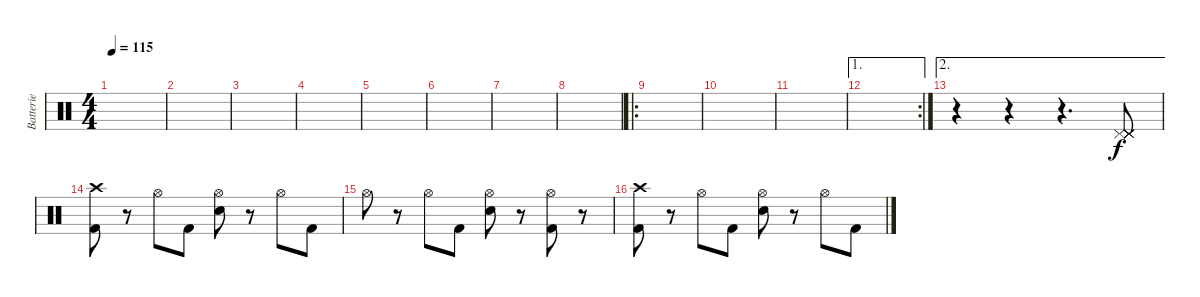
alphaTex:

\track ("Batterie" "Batterie") {instrument percussion}
\staff {score}
\articulation defaults
\ts (4 4)
\tempo 115
\clef neutral
\ks c
|
|
|
|
|
|
|
|
\ro
|
|
|
\ae 1
\rc 2
|
\ae 2
r.4 r.4 r.4{d} ("Pedal Hi-Hat (hit)" "Pedal Hi-Hat (hit)" "Pedal Hi-Hat (hit)" "Pedal Hi-Hat (hit)" "Pedal Hi-Hat (hit)" "Pedal Hi-Hat (hit)").8 |
("Crash high (hit)" "Kick (hit) 2").8 r.8 "Hi-Hat (open)".8 "Kick (hit) 2".8 ("Hi-Hat (open)" "Electric Snare (hit)").8 r.8 "Hi-Hat (open)".8 "Kick (hit) 2".8 |
"Hi-Hat (open)".8 r.8 "Hi-Hat (open)".8 "Kick (hit) 2".8 ("Hi-Hat (open)" "Electric Snare (hit)").8 r.8 ("Hi-Hat (open)" "Kick (hit) 2").8 r.8 |
("Crash high (hit)" "Kick (hit) 2").8 r.8 "Hi-Hat (open)".8 "Kick (hit) 2".8 ("Hi-Hat (open)" "Electric Snare (hit)").8 r.8 "Hi-Hat (open)".8 "Kick (hit) 2".8
